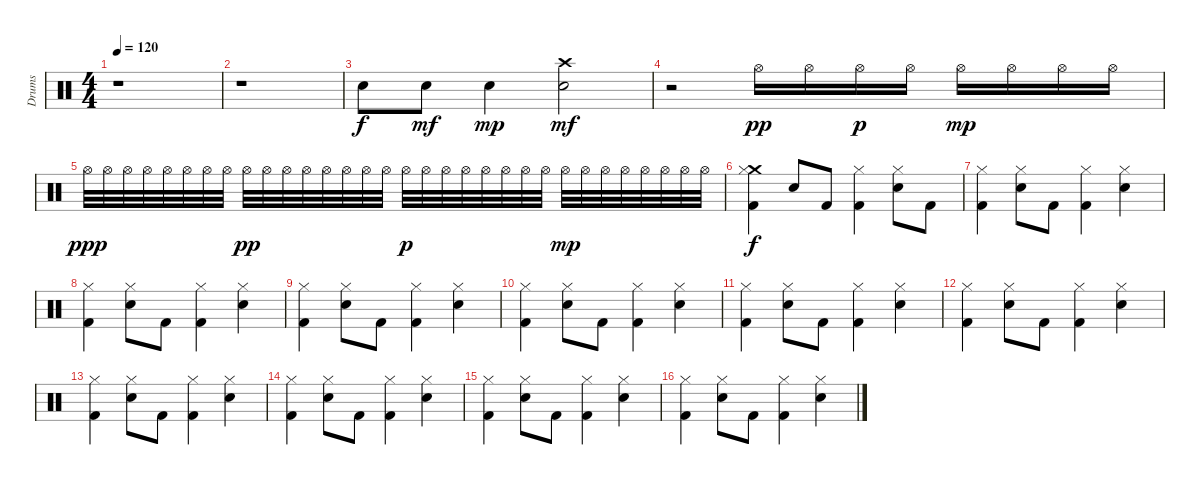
\track ("Drums" "Drums") {instrument percussion}
\staff {score}
\articulation defaults
\ts (4 4)
\tempo 120
\clef neutral
\ks c
r.1{dy f} |
r.1 |
"Electric Snare (hit)".8 "Electric Snare (hit)".8{dy mf} "Electric Snare (hit)".4{dy mp} ("Crash high (hit)" "Electric Snare (hit)").2{dy mf} |
r.2 "Hi-Hat (open)".16{dy pp} "Hi-Hat (open)".16 "Hi-Hat (open)".16{dy p} "Hi-Hat (open)".16 "Hi-Hat (open)".16{dy mp} "Hi-Hat (open)".16 "Hi-Hat (open)".16 "Hi-Hat (open)".16 |
"Hi-Hat (open)".32{dy ppp} "Hi-Hat (open)".32 "Hi-Hat (open)".32 "Hi-Hat (open)".32 "Hi-Hat (open)".32 "Hi-Hat (open)".32 "Hi-Hat (open)".32 "Hi-Hat (open)".32 "Hi-Hat (open)".32{dy pp} "Hi-Hat (open)".32 "Hi-Hat (open)".32 "Hi-Hat (open)".32 "Hi-Hat (open)".32 "Hi-Hat (open)".32 "Hi-Hat (open)".32 "Hi-Hat (open)".32 "Hi-Hat (open)".32{dy p} "Hi-Hat (open)".32 "Hi-Hat (open)".32 "Hi-Hat (open)".32 "Hi-Hat (open)".32 "Hi-Hat (open)".32 "Hi-Hat (open)".32 "Hi-Hat (open)".32 "Hi-Hat (open)".32{dy mp} "Hi-Hat (open)".32 "Hi-Hat (open)".32 "Hi-Hat (open)".32 "Hi-Hat (open)".32 "Hi-Hat (open)".32 "Hi-Hat (open)".32 "Hi-Hat (open)".32 |
("Crash medium (hit)" "Hi-Hat (closed)" "Kick (hit) 2").4{dy f} "Electric Snare (hit)".8 "Kick (hit) 2".8 ("Hi-Hat (closed)" "Kick (hit) 2").4 ("Electric Snare (hit)" "Hi-Hat (closed)").8 "Kick (hit) 2".8 |
("Hi-Hat (closed)" "Kick (hit) 2").4 ("Electric Snare (hit)" "Hi-Hat (closed)").8 "Kick (hit) 2".8 ("Hi-Hat (closed)" "Kick (hit) 2").4 ("Electric Snare (hit)" "Hi-Hat (closed)").4 |
("Hi-Hat (closed)" "Kick (hit) 2").4 ("Electric Snare (hit)" "Hi-Hat (closed)").8 "Kick (hit) 2".8 ("Hi-Hat (closed)" "Kick (hit) 2").4 ("Electric Snare (hit)" "Hi-Hat (closed)").4 |
("Hi-Hat (closed)" "Kick (hit) 2").4 ("Electric Snare (hit)" "Hi-Hat (closed)").8 "Kick (hit) 2".8 ("Hi-Hat (closed)" "Kick (hit) 2").4 ("Electric Snare (hit)" "Hi-Hat (closed)").4 |
("Hi-Hat (closed)" "Kick (hit) 2").4 ("Electric Snare (hit)" "Hi-Hat (closed)").8 "Kick (hit) 2".8 ("Hi-Hat (closed)" "Kick (hit) 2").4 ("Electric Snare (hit)" "Hi-Hat (closed)").4 |
("Hi-Hat (closed)" "Kick (hit) 2").4 ("Electric Snare (hit)" "Hi-Hat (closed)").8 "Kick (hit) 2".8 ("Hi-Hat (closed)" "Kick (hit) 2").4 ("Electric Snare (hit)" "Hi-Hat (closed)").4 |
("Hi-Hat (closed)" "Kick (hit) 2").4 ("Electric Snare (hit)" "Hi-Hat (closed)").8 "Kick (hit) 2".8 ("Hi-Hat (closed)" "Kick (hit) 2").4 ("Electric Snare (hit)" "Hi-Hat (closed)").4 |
("Hi-Hat (closed)" "Kick (hit) 2").4 ("Electric Snare (hit)" "Hi-Hat (closed)").8 "Kick (hit) 2".8 ("Hi-Hat (closed)" "Kick (hit) 2").4 ("Electric Snare (hit)" "Hi-Hat (closed)").4 |
("Hi-Hat (closed)" "Kick (hit) 2").4 ("Electric Snare (hit)" "Hi-Hat (closed)").8 "Kick (hit) 2".8 ("Hi-Hat (closed)" "Kick (hit) 2").4 ("Electric Snare (hit)" "Hi-Hat (closed)").4 |
("Hi-Hat (closed)" "Kick (hit) 2").4 ("Electric Snare (hit)" "Hi-Hat (closed)").8 "Kick (hit) 2".8 ("Hi-Hat (closed)" "Kick (hit) 2").4 ("Electric Snare (hit)" "Hi-Hat (closed)").4 |
("Hi-Hat (closed)" "Kick (hit) 2").4 ("Electric Snare (hit)" "Hi-Hat (closed)").8 "Kick (hit) 2".8 ("Hi-Hat (closed)" "Kick (hit) 2").4 ("Electric Snare (hit)" "Hi-Hat (closed)").4
